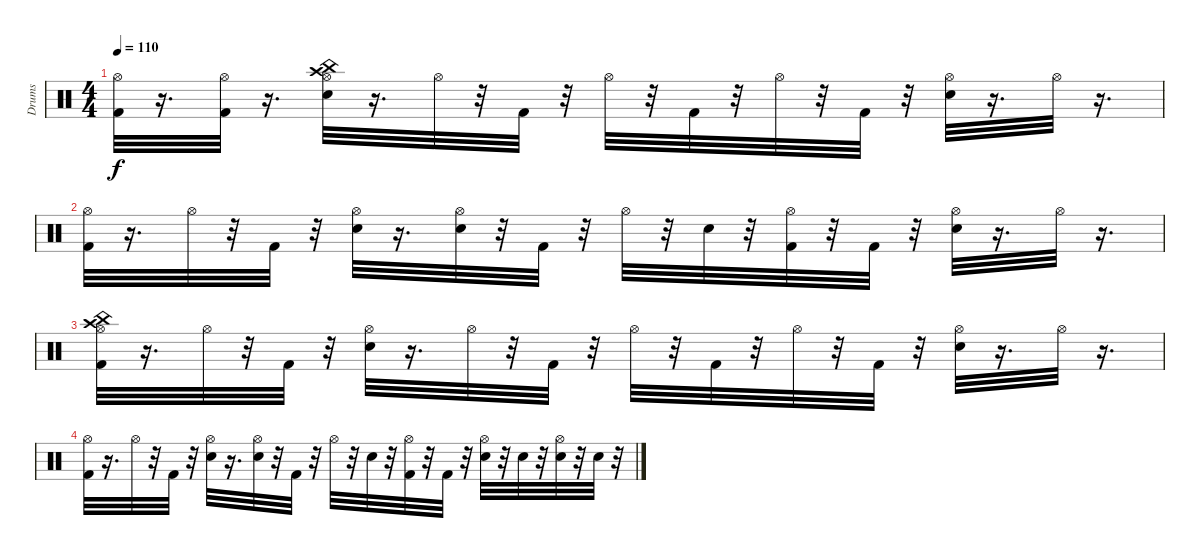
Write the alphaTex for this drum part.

\track ("Drums" "Drums") {instrument percussion}
\staff {score}
\articulation defaults
\ts (4 4)
\tempo 110
\clef neutral
\ks c
("Kick (hit) 2" "Hi-Hat (open)").32{dy f} r.16{d} ("Kick (hit) 2" "Hi-Hat (open)").32 r.16{d} ("Snare (hit) 2" "Hi-Hat (open)" "Crash high (hit)" "China (hit)").32 r.16{d} "Hi-Hat (open)".32 r.32 "Kick (hit) 2".32 r.32 "Hi-Hat (open)".32 r.32 "Kick (hit) 2".32 r.32 "Hi-Hat (open)".32 r.32 "Kick (hit) 2".32 r.32 ("Snare (hit) 2" "Hi-Hat (open)").32 r.16{d} "Hi-Hat (open)".32 r.16{d} |
("Kick (hit) 2" "Hi-Hat (open)").32 r.16{d} "Hi-Hat (open)".32 r.32 "Kick (hit) 2".32 r.32 ("Snare (hit) 2" "Hi-Hat (open)").32 r.16{d} ("Snare (hit) 2" "Hi-Hat (open)").32 r.32 "Kick (hit) 2".32 r.32 "Hi-Hat (open)".32 r.32 "Snare (hit) 2".32 r.32 ("Kick (hit) 2" "Hi-Hat (open)").32 r.32 "Kick (hit) 2".32 r.32 ("Snare (hit) 2" "Hi-Hat (open)").32 r.16{d} "Hi-Hat (open)".32 r.16{d} |
("Kick (hit) 2" "Hi-Hat (open)" "Crash high (hit)" "China (hit)").32 r.16{d} "Hi-Hat (open)".32 r.32 "Kick (hit) 2".32 r.32 ("Snare (hit) 2" "Hi-Hat (open)").32 r.16{d} "Hi-Hat (open)".32 r.32 "Kick (hit) 2".32 r.32 "Hi-Hat (open)".32 r.32 "Kick (hit) 2".32 r.32 "Hi-Hat (open)".32 r.32 "Kick (hit) 2".32 r.32 ("Snare (hit) 2" "Hi-Hat (open)").32 r.16{d} "Hi-Hat (open)".32 r.16{d} |
("Kick (hit) 2" "Hi-Hat (open)").32 r.16{d} "Hi-Hat (open)".32 r.32 "Kick (hit) 2".32 r.32 ("Snare (hit) 2" "Hi-Hat (open)").32 r.16{d} ("Snare (hit) 2" "Hi-Hat (open)").32 r.32 "Kick (hit) 2".32 r.32 "Hi-Hat (open)".32 r.32 "Snare (hit) 2".32 r.32 ("Kick (hit) 2" "Hi-Hat (open)").32 r.32 "Kick (hit) 2".32 r.32 ("Snare (hit) 2" "Hi-Hat (open)").32 r.32 "Snare (hit) 2".32 r.32 ("Snare (hit) 2" "Hi-Hat (open)").32 r.32 "Snare (hit) 2".32 r.32
